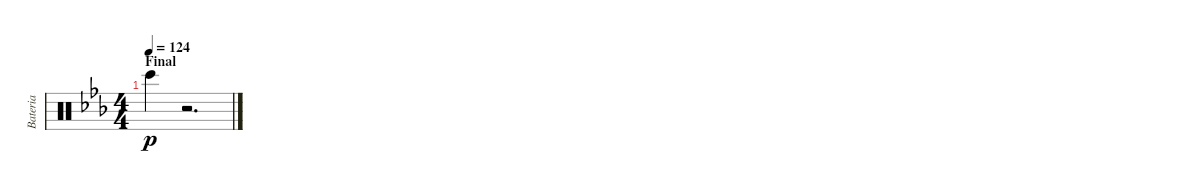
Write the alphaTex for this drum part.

\track ("Bateria" "Bateria") {instrument percussion}
\staff {score}
\articulation defaults
\ts (4 4)
\section ("" "Final")
\tempo 124
\clef neutral
\ks eb "Bongo High (hit)".4{dy p}
r.2{d}
